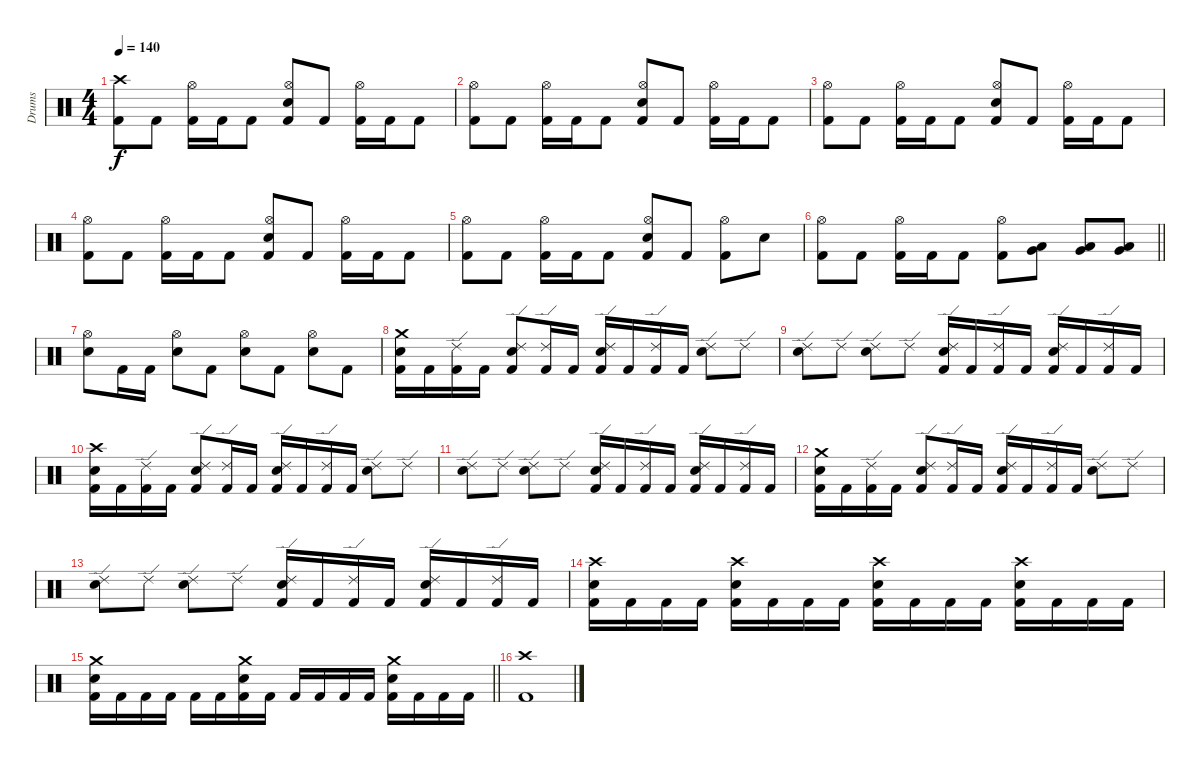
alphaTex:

\track ("Drums" "Drums") {instrument percussion}
\staff {score}
\articulation defaults
\ts (4 4)
\tempo 140
\clef neutral
\ks c
("Crash high (hit)" "Kick (hit) 2").8{dy f} "Kick (hit) 2".8 ("Hi-Hat (open)" "Kick (hit) 2").16 "Kick (hit) 2".16 "Kick (hit) 2".8 ("Hi-Hat (open)" "Snare (hit) 2" "Kick (hit) 2").8 "Kick (hit) 2".8 ("Hi-Hat (open)" "Kick (hit) 2").16 "Kick (hit) 2".16 "Kick (hit) 2".8 |
("Hi-Hat (open)" "Kick (hit) 2").8 "Kick (hit) 2".8 ("Hi-Hat (open)" "Kick (hit) 2").16 "Kick (hit) 2".16 "Kick (hit) 2".8 ("Hi-Hat (open)" "Snare (hit) 2" "Kick (hit) 2").8 "Kick (hit) 2".8 ("Hi-Hat (open)" "Kick (hit) 2").16 "Kick (hit) 2".16 "Kick (hit) 2".8 |
("Hi-Hat (open)" "Kick (hit) 2").8 "Kick (hit) 2".8 ("Hi-Hat (open)" "Kick (hit) 2").16 "Kick (hit) 2".16 "Kick (hit) 2".8 ("Hi-Hat (open)" "Snare (hit) 2" "Kick (hit) 2").8 "Kick (hit) 2".8 ("Hi-Hat (open)" "Kick (hit) 2").16 "Kick (hit) 2".16 "Kick (hit) 2".8 |
("Hi-Hat (open)" "Kick (hit) 2").8 "Kick (hit) 2".8 ("Hi-Hat (open)" "Kick (hit) 2").16 "Kick (hit) 2".16 "Kick (hit) 2".8 ("Hi-Hat (open)" "Snare (hit) 2" "Kick (hit) 2").8 "Kick (hit) 2".8 ("Hi-Hat (open)" "Kick (hit) 2").16 "Kick (hit) 2".16 "Kick (hit) 2".8 |
("Hi-Hat (open)" "Kick (hit) 2").8 "Kick (hit) 2".8 ("Hi-Hat (open)" "Kick (hit) 2").16 "Kick (hit) 2".16 "Kick (hit) 2".8 ("Hi-Hat (open)" "Snare (hit) 2" "Kick (hit) 2").8 "Kick (hit) 2".8 ("Hi-Hat (open)" "Kick (hit) 2").8 "Snare (hit) 2".8 |
\barLineRight lightlight
("Hi-Hat (open)" "Kick (hit) 2").8 "Kick (hit) 2".8 ("Hi-Hat (open)" "Kick (hit) 2").16 "Kick (hit) 2".16 "Kick (hit) 2".8 ("Hi-Hat (open)" "Kick (hit) 2").8 ("Very Low Tom (hit)" "Low Floor Tom (hit)").8 ("Very Low Tom (hit)" "Low Floor Tom (hit)").8 ("Very Low Tom (hit)" "Low Floor Tom (hit)").8 |
("Hi-Hat (open)" "Snare (hit) 2").8 "Kick (hit) 2".16 "Kick (hit) 2".16 ("Hi-Hat (open)" "Snare (hit) 2").8 "Kick (hit) 2".8 ("Hi-Hat (open)" "Snare (hit) 2").8 "Kick (hit) 2".8 ("Hi-Hat (open)" "Snare (hit) 2").8 "Kick (hit) 2".8 |
("Crash medium (hit)" "Snare (hit) 2" "Kick (hit) 2").16 "Kick (hit) 2".16 ("Ride (edge) 2" "Kick (hit) 2").16 "Kick (hit) 2".16 ("Ride (edge) 2" "Snare (hit) 2" "Kick (hit) 2").8 ("Ride (edge) 2" "Kick (hit) 2").16 "Kick (hit) 2".16 ("Ride (edge) 2" "Snare (hit) 2" "Kick (hit) 2").16 "Kick (hit) 2".16 ("Ride (edge) 2" "Kick (hit) 2").16 "Kick (hit) 2".16 ("Ride (edge) 2" "Snare (hit) 2").8 "Ride (edge) 2".8 |
("Ride (edge) 2" "Snare (hit) 2").8 "Ride (edge) 2".8 ("Ride (edge) 2" "Snare (hit) 2").8 "Ride (edge) 2".8 ("Ride (edge) 2" "Snare (hit) 2" "Kick (hit) 2").16 "Kick (hit) 2".16 ("Ride (edge) 2" "Kick (hit) 2").16 "Kick (hit) 2".16 ("Ride (edge) 2" "Snare (hit) 2" "Kick (hit) 2").16 "Kick (hit) 2".16 ("Ride (edge) 2" "Kick (hit) 2").16 "Kick (hit) 2".16 |
("Crash high (hit)" "Snare (hit) 2" "Kick (hit) 2").16 "Kick (hit) 2".16 ("Ride (edge) 2" "Kick (hit) 2").16 "Kick (hit) 2".16 ("Ride (edge) 2" "Snare (hit) 2" "Kick (hit) 2").8 ("Ride (edge) 2" "Kick (hit) 2").16 "Kick (hit) 2".16 ("Ride (edge) 2" "Snare (hit) 2" "Kick (hit) 2").16 "Kick (hit) 2".16 ("Ride (edge) 2" "Kick (hit) 2").16 "Kick (hit) 2".16 ("Ride (edge) 2" "Snare (hit) 2").8 "Ride (edge) 2".8 |
("Ride (edge) 2" "Snare (hit) 2").8 "Ride (edge) 2".8 ("Ride (edge) 2" "Snare (hit) 2").8 "Ride (edge) 2".8 ("Ride (edge) 2" "Snare (hit) 2" "Kick (hit) 2").16 "Kick (hit) 2".16 ("Ride (edge) 2" "Kick (hit) 2").16 "Kick (hit) 2".16 ("Ride (edge) 2" "Snare (hit) 2" "Kick (hit) 2").16 "Kick (hit) 2".16 ("Ride (edge) 2" "Kick (hit) 2").16 "Kick (hit) 2".16 |
("Crash medium (hit)" "Snare (hit) 2" "Kick (hit) 2").16 "Kick (hit) 2".16 ("Ride (edge) 2" "Kick (hit) 2").16 "Kick (hit) 2".16 ("Ride (edge) 2" "Snare (hit) 2" "Kick (hit) 2").8 ("Ride (edge) 2" "Kick (hit) 2").16 "Kick (hit) 2".16 ("Ride (edge) 2" "Snare (hit) 2" "Kick (hit) 2").16 "Kick (hit) 2".16 ("Ride (edge) 2" "Kick (hit) 2").16 "Kick (hit) 2".16 ("Ride (edge) 2" "Snare (hit) 2").8 "Ride (edge) 2".8 |
("Ride (edge) 2" "Snare (hit) 2").8 "Ride (edge) 2".8 ("Ride (edge) 2" "Snare (hit) 2").8 "Ride (edge) 2".8 ("Ride (edge) 2" "Snare (hit) 2" "Kick (hit) 2").16 "Kick (hit) 2".16 ("Ride (edge) 2" "Kick (hit) 2").16 "Kick (hit) 2".16 ("Ride (edge) 2" "Snare (hit) 2" "Kick (hit) 2").16 "Kick (hit) 2".16 ("Ride (edge) 2" "Kick (hit) 2").16 "Kick (hit) 2".16 |
("Crash high (hit)" "Snare (hit) 2" "Kick (hit) 2").16 "Kick (hit) 2".16 "Kick (hit) 2".16 "Kick (hit) 2".16 ("Crash high (hit)" "Snare (hit) 2" "Kick (hit) 2").16 "Kick (hit) 2".16 "Kick (hit) 2".16 "Kick (hit) 2".16 ("Crash high (hit)" "Snare (hit) 2" "Kick (hit) 2").16 "Kick (hit) 2".16 "Kick (hit) 2".16 "Kick (hit) 2".16 ("Crash high (hit)" "Snare (hit) 2" "Kick (hit) 2").16 "Kick (hit) 2".16 "Kick (hit) 2".16 "Kick (hit) 2".16 |
\barLineRight lightlight
("Crash medium (hit)" "Snare (hit) 2" "Kick (hit) 2").16 "Kick (hit) 2".16 "Kick (hit) 2".16 "Kick (hit) 2".16 "Kick (hit) 2".16 "Kick (hit) 2".16 ("Crash medium (hit)" "Snare (hit) 2" "Kick (hit) 2").16 "Kick (hit) 2".16 "Kick (hit) 2".16 "Kick (hit) 2".16 "Kick (hit) 2".16 "Kick (hit) 2".16 ("Crash medium (hit)" "Snare (hit) 2" "Kick (hit) 2").16 "Kick (hit) 2".16 "Kick (hit) 2".16 "Kick (hit) 2".16 |
("Crash high (hit)" "Kick (hit) 2").1
